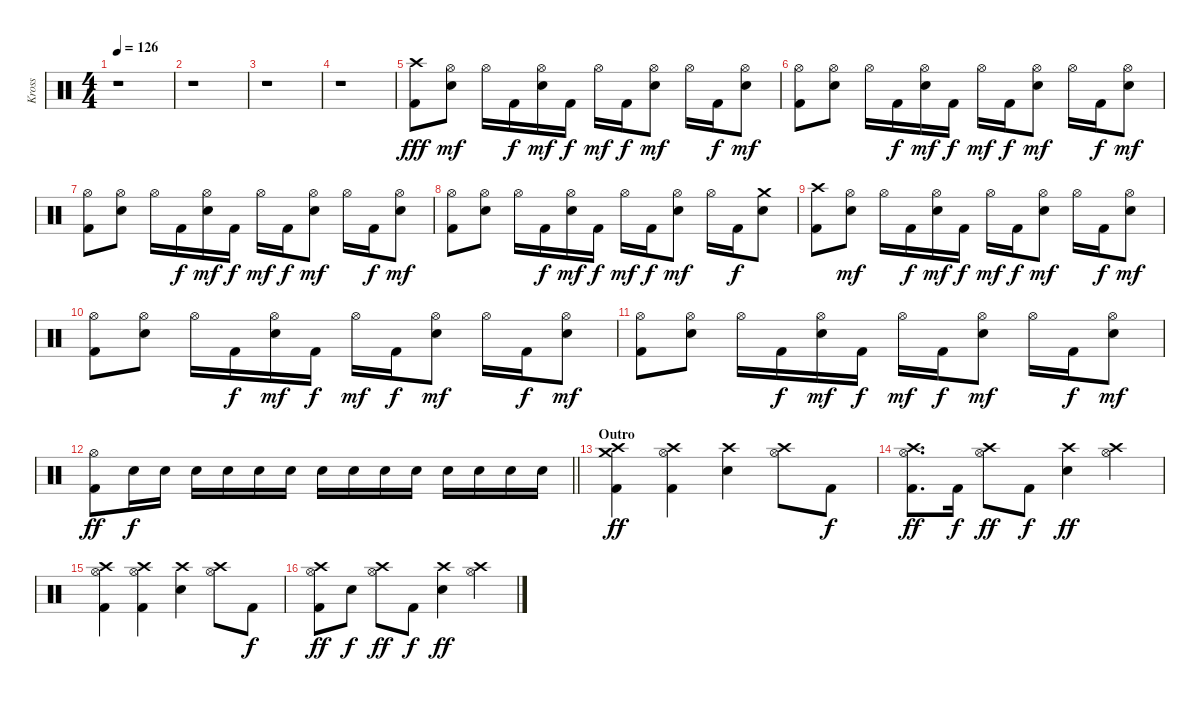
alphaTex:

\track ("Kross" "Kross") {instrument percussion}
\staff {score}
\articulation defaults
\ts (4 4)
\tempo 126
\clef neutral
\ks c
r.1{dy fff} |
r.1 |
r.1 |
r.1 |
("Crash high (hit)" "Kick (hit) 2").8 ("Hi-Hat (open)" "Electric Snare (hit)").8{dy mf} "Hi-Hat (open)".16 "Kick (hit) 2".16{dy f} ("Hi-Hat (open)" "Electric Snare (hit)").16{dy mf} "Kick (hit) 2".16{dy f} "Hi-Hat (open)".16{dy mf} "Kick (hit) 2".16{dy f} ("Hi-Hat (open)" "Electric Snare (hit)").8{dy mf} "Hi-Hat (open)".16 "Kick (hit) 2".16{dy f} ("Hi-Hat (open)" "Electric Snare (hit)").8{dy mf} |
("Hi-Hat (open)" "Kick (hit) 2").8 ("Hi-Hat (open)" "Electric Snare (hit)").8 "Hi-Hat (open)".16 "Kick (hit) 2".16{dy f} ("Hi-Hat (open)" "Electric Snare (hit)").16{dy mf} "Kick (hit) 2".16{dy f} "Hi-Hat (open)".16{dy mf} "Kick (hit) 2".16{dy f} ("Hi-Hat (open)" "Electric Snare (hit)").8{dy mf} "Hi-Hat (open)".16 "Kick (hit) 2".16{dy f} ("Hi-Hat (open)" "Electric Snare (hit)").8{dy mf} |
("Hi-Hat (open)" "Kick (hit) 2").8 ("Hi-Hat (open)" "Electric Snare (hit)").8 "Hi-Hat (open)".16 "Kick (hit) 2".16{dy f} ("Hi-Hat (open)" "Electric Snare (hit)").16{dy mf} "Kick (hit) 2".16{dy f} "Hi-Hat (open)".16{dy mf} "Kick (hit) 2".16{dy f} ("Hi-Hat (open)" "Electric Snare (hit)").8{dy mf} "Hi-Hat (open)".16 "Kick (hit) 2".16{dy f} ("Hi-Hat (open)" "Electric Snare (hit)").8{dy mf} |
("Hi-Hat (open)" "Kick (hit) 2").8 ("Hi-Hat (open)" "Electric Snare (hit)").8 "Hi-Hat (open)".16 "Kick (hit) 2".16{dy f} ("Hi-Hat (open)" "Electric Snare (hit)").16{dy mf} "Kick (hit) 2".16{dy f} "Hi-Hat (open)".16{dy mf} "Kick (hit) 2".16{dy f} ("Hi-Hat (open)" "Electric Snare (hit)").8{dy mf} "Hi-Hat (open)".16 "Kick (hit) 2".16{dy f} ("Crash medium (hit)" "Electric Snare (hit)").8 |
("Crash high (hit)" "Kick (hit) 2").8 ("Hi-Hat (open)" "Electric Snare (hit)").8{dy mf} "Hi-Hat (open)".16 "Kick (hit) 2".16{dy f} ("Hi-Hat (open)" "Electric Snare (hit)").16{dy mf} "Kick (hit) 2".16{dy f} "Hi-Hat (open)".16{dy mf} "Kick (hit) 2".16{dy f} ("Hi-Hat (open)" "Electric Snare (hit)").8{dy mf} "Hi-Hat (open)".16 "Kick (hit) 2".16{dy f} ("Hi-Hat (open)" "Electric Snare (hit)").8{dy mf} |
("Hi-Hat (open)" "Kick (hit) 2").8 ("Hi-Hat (open)" "Electric Snare (hit)").8 "Hi-Hat (open)".16 "Kick (hit) 2".16{dy f} ("Hi-Hat (open)" "Electric Snare (hit)").16{dy mf} "Kick (hit) 2".16{dy f} "Hi-Hat (open)".16{dy mf} "Kick (hit) 2".16{dy f} ("Hi-Hat (open)" "Electric Snare (hit)").8{dy mf} "Hi-Hat (open)".16 "Kick (hit) 2".16{dy f} ("Hi-Hat (open)" "Electric Snare (hit)").8{dy mf} |
("Hi-Hat (open)" "Kick (hit) 2").8 ("Hi-Hat (open)" "Electric Snare (hit)").8 "Hi-Hat (open)".16 "Kick (hit) 2".16{dy f} ("Hi-Hat (open)" "Electric Snare (hit)").16{dy mf} "Kick (hit) 2".16{dy f} "Hi-Hat (open)".16{dy mf} "Kick (hit) 2".16{dy f} ("Hi-Hat (open)" "Electric Snare (hit)").8{dy mf} "Hi-Hat (open)".16 "Kick (hit) 2".16{dy f} ("Hi-Hat (open)" "Electric Snare (hit)").8{dy mf} |
\barLineRight lightlight
("Hi-Hat (open)" "Kick (hit) 2").8{dy ff} "Electric Snare (hit)".16{dy f} "Electric Snare (hit)".16 "Electric Snare (hit)".16 "Electric Snare (hit)".16 "Electric Snare (hit)".16 "Electric Snare (hit)".16 "Electric Snare (hit)".16 "Electric Snare (hit)".16 "Electric Snare (hit)".16 "Electric Snare (hit)".16 "Electric Snare (hit)".16 "Electric Snare (hit)".16 "Electric Snare (hit)".16 "Electric Snare (hit)".16 |
\section ("" "Outro")
("Crash high (hit)" "Crash medium (hit)" "Kick (hit) 2").4{dy ff} ("Crash high (hit)" "Hi-Hat (open)" "Kick (hit) 2").4 ("Crash high (hit)" "Electric Snare (hit)").4 ("Crash high (hit)" "Hi-Hat (open)").8 "Kick (hit) 2".8{dy f} |
("Crash high (hit)" "Hi-Hat (open)" "Kick (hit) 2").8{d dy ff} "Kick (hit) 2".16{dy f} ("Crash high (hit)" "Hi-Hat (open)").8{dy ff} "Kick (hit) 2".8{dy f} ("Crash high (hit)" "Electric Snare (hit)").4{dy ff} ("Crash high (hit)" "Hi-Hat (open)").4 |
("Crash high (hit)" "Hi-Hat (open)" "Kick (hit) 2").4 ("Crash high (hit)" "Hi-Hat (open)" "Kick (hit) 2").4 ("Crash high (hit)" "Electric Snare (hit)").4 ("Crash high (hit)" "Hi-Hat (open)").8 "Kick (hit) 2".8{dy f} |
("Crash high (hit)" "Hi-Hat (open)" "Kick (hit) 2").8{dy ff} "Electric Snare (hit)".8{dy f} ("Crash high (hit)" "Hi-Hat (open)").8{dy ff} "Kick (hit) 2".8{dy f} ("Crash high (hit)" "Electric Snare (hit)").4{dy ff} ("Crash high (hit)" "Hi-Hat (open)").4
